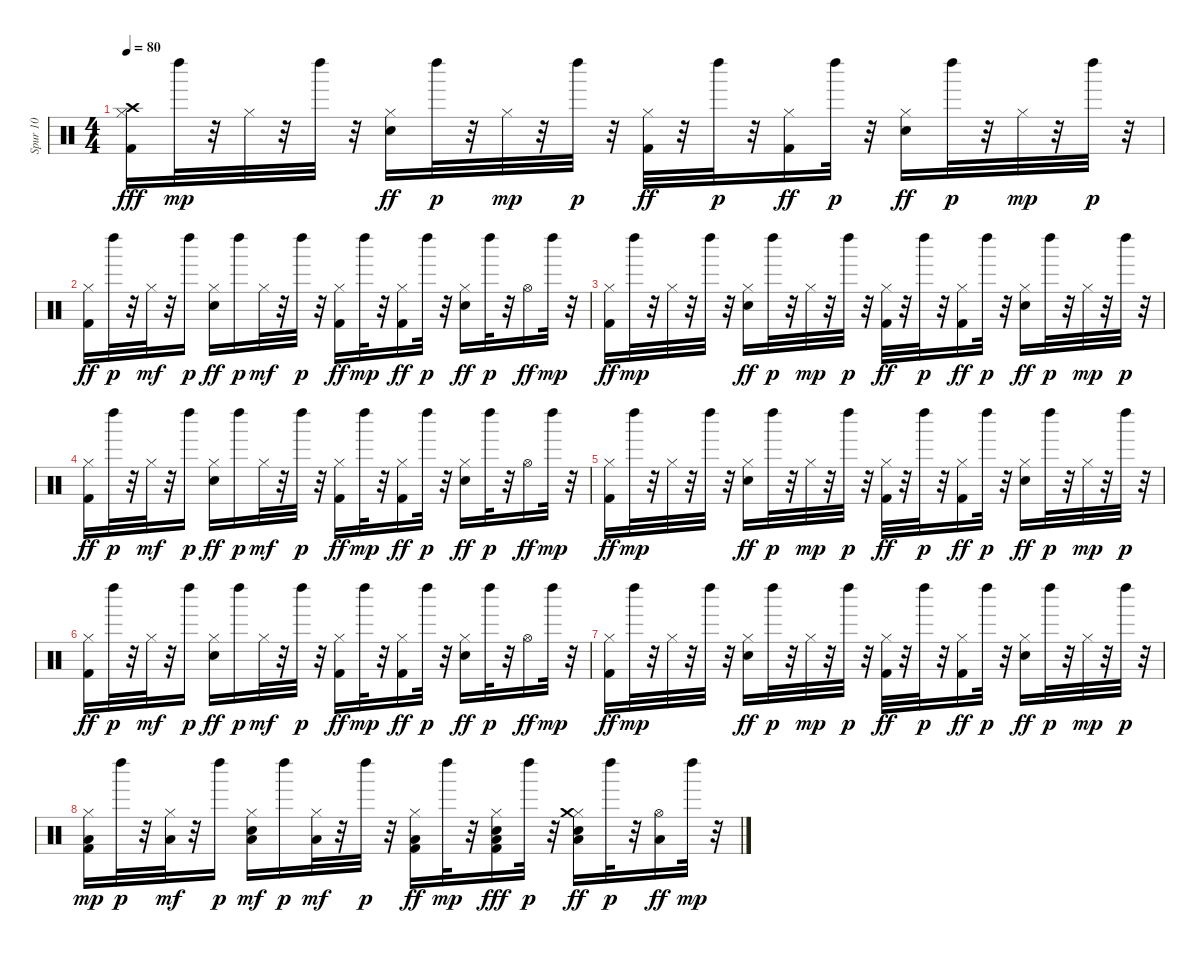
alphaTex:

\track ("Spur 10" "Spur 10") {instrument percussion}
\staff {score}
\articulation defaults
\ts (4 4)
\tempo 80
\clef neutral
\ks c
("Hi-Hat (closed)" "Kick (hit) 2" "Crash high (hit)").16{dy fff} "Left Maraca (hit)".32{dy mp} r.32 "Hi-Hat (closed)".32 r.32 "Left Maraca (hit)".32 r.32 ("Electric Snare (hit)" "Hi-Hat (closed)").16{dy ff} "Left Maraca (hit)".32{dy p} r.32 "Hi-Hat (closed)".32{dy mp} r.32 "Left Maraca (hit)".32{dy p} r.32 ("Hi-Hat (closed)" "Kick (hit) 2").32{dy ff} r.32 "Left Maraca (hit)".32{dy p} r.32 ("Hi-Hat (closed)" "Kick (hit) 2").16{dy ff} "Left Maraca (hit)".32{dy p} r.32 ("Electric Snare (hit)" "Hi-Hat (closed)").16{dy ff} "Left Maraca (hit)".32{dy p} r.32 "Hi-Hat (closed)".32{dy mp} r.32 "Left Maraca (hit)".32{dy p} r.32 |
("Hi-Hat (closed)" "Kick (hit) 2").16{dy ff} "Left Maraca (hit)".32{dy p} r.32 "Hi-Hat (closed)".32{dy mf} r.32 "Left Maraca (hit)".16{dy p} ("Electric Snare (hit)" "Hi-Hat (closed)").16{dy ff} "Left Maraca (hit)".16{dy p} "Hi-Hat (closed)".32{dy mf} r.32 "Left Maraca (hit)".32{dy p} r.32 ("Hi-Hat (closed)" "Kick (hit) 2").16{dy ff} "Left Maraca (hit)".32{dy mp} r.32 ("Hi-Hat (closed)" "Kick (hit) 2").16{dy ff} "Left Maraca (hit)".32{dy p} r.32 ("Electric Snare (hit)" "Hi-Hat (closed)").16{dy ff} "Left Maraca (hit)".32{dy p} r.32 "Hi-Hat (open)".16{dy ff} "Left Maraca (hit)".32{dy mp} r.32 |
("Hi-Hat (closed)" "Kick (hit) 2").16{dy ff} "Left Maraca (hit)".32{dy mp} r.32 "Hi-Hat (closed)".32 r.32 "Left Maraca (hit)".32 r.32 ("Electric Snare (hit)" "Hi-Hat (closed)").16{dy ff} "Left Maraca (hit)".32{dy p} r.32 "Hi-Hat (closed)".32{dy mp} r.32 "Left Maraca (hit)".32{dy p} r.32 ("Hi-Hat (closed)" "Kick (hit) 2").32{dy ff} r.32 "Left Maraca (hit)".32{dy p} r.32 ("Hi-Hat (closed)" "Kick (hit) 2").16{dy ff} "Left Maraca (hit)".32{dy p} r.32 ("Electric Snare (hit)" "Hi-Hat (closed)").16{dy ff} "Left Maraca (hit)".32{dy p} r.32 "Hi-Hat (closed)".32{dy mp} r.32 "Left Maraca (hit)".32{dy p} r.32 |
("Hi-Hat (closed)" "Kick (hit) 2").16{dy ff} "Left Maraca (hit)".32{dy p} r.32 "Hi-Hat (closed)".32{dy mf} r.32 "Left Maraca (hit)".16{dy p} ("Electric Snare (hit)" "Hi-Hat (closed)").16{dy ff} "Left Maraca (hit)".16{dy p} "Hi-Hat (closed)".32{dy mf} r.32 "Left Maraca (hit)".32{dy p} r.32 ("Hi-Hat (closed)" "Kick (hit) 2").16{dy ff} "Left Maraca (hit)".32{dy mp} r.32 ("Hi-Hat (closed)" "Kick (hit) 2").16{dy ff} "Left Maraca (hit)".32{dy p} r.32 ("Electric Snare (hit)" "Hi-Hat (closed)").16{dy ff} "Left Maraca (hit)".32{dy p} r.32 "Hi-Hat (open)".16{dy ff} "Left Maraca (hit)".32{dy mp} r.32 |
("Hi-Hat (closed)" "Kick (hit) 2").16{dy ff} "Left Maraca (hit)".32{dy mp} r.32 "Hi-Hat (closed)".32 r.32 "Left Maraca (hit)".32 r.32 ("Electric Snare (hit)" "Hi-Hat (closed)").16{dy ff} "Left Maraca (hit)".32{dy p} r.32 "Hi-Hat (closed)".32{dy mp} r.32 "Left Maraca (hit)".32{dy p} r.32 ("Hi-Hat (closed)" "Kick (hit) 2").32{dy ff} r.32 "Left Maraca (hit)".32{dy p} r.32 ("Hi-Hat (closed)" "Kick (hit) 2").16{dy ff} "Left Maraca (hit)".32{dy p} r.32 ("Electric Snare (hit)" "Hi-Hat (closed)").16{dy ff} "Left Maraca (hit)".32{dy p} r.32 "Hi-Hat (closed)".32{dy mp} r.32 "Left Maraca (hit)".32{dy p} r.32 |
("Hi-Hat (closed)" "Kick (hit) 2").16{dy ff} "Left Maraca (hit)".32{dy p} r.32 "Hi-Hat (closed)".32{dy mf} r.32 "Left Maraca (hit)".16{dy p} ("Electric Snare (hit)" "Hi-Hat (closed)").16{dy ff} "Left Maraca (hit)".16{dy p} "Hi-Hat (closed)".32{dy mf} r.32 "Left Maraca (hit)".32{dy p} r.32 ("Hi-Hat (closed)" "Kick (hit) 2").16{dy ff} "Left Maraca (hit)".32{dy mp} r.32 ("Hi-Hat (closed)" "Kick (hit) 2").16{dy ff} "Left Maraca (hit)".32{dy p} r.32 ("Electric Snare (hit)" "Hi-Hat (closed)").16{dy ff} "Left Maraca (hit)".32{dy p} r.32 "Hi-Hat (open)".16{dy ff} "Left Maraca (hit)".32{dy mp} r.32 |
("Hi-Hat (closed)" "Kick (hit) 2").16{dy ff} "Left Maraca (hit)".32{dy mp} r.32 "Hi-Hat (closed)".32 r.32 "Left Maraca (hit)".32 r.32 ("Electric Snare (hit)" "Hi-Hat (closed)").16{dy ff} "Left Maraca (hit)".32{dy p} r.32 "Hi-Hat (closed)".32{dy mp} r.32 "Left Maraca (hit)".32{dy p} r.32 ("Hi-Hat (closed)" "Kick (hit) 2").32{dy ff} r.32 "Left Maraca (hit)".32{dy p} r.32 ("Hi-Hat (closed)" "Kick (hit) 2").16{dy ff} "Left Maraca (hit)".32{dy p} r.32 ("Electric Snare (hit)" "Hi-Hat (closed)").16{dy ff} "Left Maraca (hit)".32{dy p} r.32 "Hi-Hat (closed)".32{dy mp} r.32 "Left Maraca (hit)".32{dy p} r.32 |
("Hi-Hat (closed)" "Kick (hit) 2" "Low Tom (hit)").16{dy mp} "Left Maraca (hit)".32{dy p} r.32 ("Hi-Hat (closed)" "Low Tom (hit)").32{dy mf} r.32 "Left Maraca (hit)".16{dy p} ("Electric Snare (hit)" "Hi-Hat (closed)" "Low Tom (hit)").16{dy mf} "Left Maraca (hit)".16{dy p} ("Hi-Hat (closed)" "Low Tom (hit)").32{dy mf} r.32 "Left Maraca (hit)".32{dy p} r.32 ("Hi-Hat (closed)" "Kick (hit) 2" "Low Tom (hit)").16{dy ff} "Left Maraca (hit)".32{dy mp} r.32 ("Hi-Hat (closed)" "Kick (hit) 2" "Low Tom (hit)" "Electric Snare (hit)").16{dy fff} "Left Maraca (hit)".32{dy p} r.32 ("Electric Snare (hit)" "Hi-Hat (closed)" "Low Tom (hit)" "Crash medium (hit)").16{dy ff} "Left Maraca (hit)".32{dy p} r.32 ("Hi-Hat (open)" "Low Tom (hit)").16{dy ff} "Left Maraca (hit)".32{dy mp} r.32
